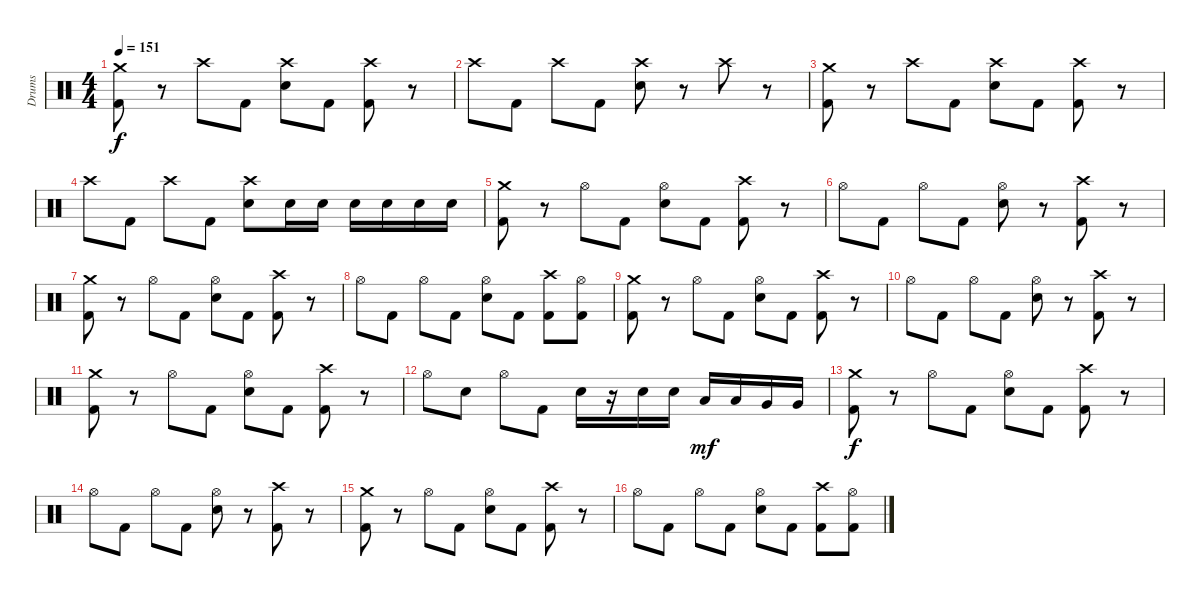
\track ("Drums" "Drums") {instrument percussion}
\staff {score}
\articulation defaults
\ts (4 4)
\tempo 151
\clef neutral
\ks c
("Crash medium (hit)" "Kick (hit) 2").8{dy f} r.8 "Crash high (hit)".8 "Kick (hit) 2".8 ("Crash high (hit)" "Snare (hit) 2").8 "Kick (hit) 2".8 ("Crash high (hit)" "Kick (hit) 2").8 r.8 |
"Crash high (hit)".8 "Kick (hit) 2".8 "Crash high (hit)".8 "Kick (hit) 2".8 ("Crash high (hit)" "Snare (hit) 2").8 r.8 "Crash high (hit)".8 r.8 |
("Crash medium (hit)" "Kick (hit) 2").8 r.8 "Crash high (hit)".8 "Kick (hit) 2".8 ("Crash high (hit)" "Snare (hit) 2").8 "Kick (hit) 2".8 ("Crash high (hit)" "Kick (hit) 2").8 r.8 |
"Crash high (hit)".8 "Kick (hit) 2".8 "Crash high (hit)".8 "Kick (hit) 2".8 ("Crash high (hit)" "Snare (hit) 2").8 "Snare (hit) 2".16 "Snare (hit) 2".16 "Snare (hit) 2".16 "Snare (hit) 2".16 "Snare (hit) 2".16 "Snare (hit) 2".16 |
("Crash medium (hit)" "Kick (hit) 2").8 r.8 "Hi-Hat (open)".8 "Kick (hit) 2".8 ("Hi-Hat (open)" "Snare (hit) 2").8 "Kick (hit) 2".8 ("Crash high (hit)" "Kick (hit) 2").8 r.8 |
"Hi-Hat (open)".8 "Kick (hit) 2".8 "Hi-Hat (open)".8 "Kick (hit) 2".8 ("Hi-Hat (open)" "Snare (hit) 2").8 r.8 ("Crash high (hit)" "Kick (hit) 2").8 r.8 |
("Crash medium (hit)" "Kick (hit) 2").8 r.8 "Hi-Hat (open)".8 "Kick (hit) 2".8 ("Hi-Hat (open)" "Snare (hit) 2").8 "Kick (hit) 2".8 ("Crash high (hit)" "Kick (hit) 2").8 r.8 |
"Hi-Hat (open)".8 "Kick (hit) 2".8 "Hi-Hat (open)".8 "Kick (hit) 2".8 ("Hi-Hat (open)" "Snare (hit) 2").8 "Kick (hit) 2".8 ("Crash high (hit)" "Kick (hit) 2").8 ("Hi-Hat (open)" "Kick (hit) 2").8 |
("Crash medium (hit)" "Kick (hit) 2").8 r.8 "Hi-Hat (open)".8 "Kick (hit) 2".8 ("Hi-Hat (open)" "Snare (hit) 2").8 "Kick (hit) 2".8 ("Crash high (hit)" "Kick (hit) 2").8 r.8 |
"Hi-Hat (open)".8 "Kick (hit) 2".8 "Hi-Hat (open)".8 "Kick (hit) 2".8 ("Hi-Hat (open)" "Snare (hit) 2").8 r.8 ("Crash high (hit)" "Kick (hit) 2").8 r.8 |
("Crash medium (hit)" "Kick (hit) 2").8 r.8 "Hi-Hat (open)".8 "Kick (hit) 2".8 ("Hi-Hat (open)" "Snare (hit) 2").8 "Kick (hit) 2".8 ("Crash high (hit)" "Kick (hit) 2").8 r.8 |
"Hi-Hat (open)".8 "Snare (hit) 2".8 "Hi-Hat (open)".8 "Kick (hit) 2".8 "Snare (hit) 2".16 r.16 "Snare (hit) 2".16 "Snare (hit) 2".16 "Low Tom (hit)".16{dy mf} "Low Tom (hit)".16 "Very Low Tom (hit)".16 "Very Low Tom (hit)".16 |
("Crash medium (hit)" "Kick (hit) 2").8{dy f} r.8 "Hi-Hat (open)".8 "Kick (hit) 2".8 ("Hi-Hat (open)" "Snare (hit) 2").8 "Kick (hit) 2".8 ("Crash high (hit)" "Kick (hit) 2").8 r.8 |
"Hi-Hat (open)".8 "Kick (hit) 2".8 "Hi-Hat (open)".8 "Kick (hit) 2".8 ("Hi-Hat (open)" "Snare (hit) 2").8 r.8 ("Crash high (hit)" "Kick (hit) 2").8 r.8 |
("Crash medium (hit)" "Kick (hit) 2").8 r.8 "Hi-Hat (open)".8 "Kick (hit) 2".8 ("Hi-Hat (open)" "Snare (hit) 2").8 "Kick (hit) 2".8 ("Crash high (hit)" "Kick (hit) 2").8 r.8 |
"Hi-Hat (open)".8 "Kick (hit) 2".8 "Hi-Hat (open)".8 "Kick (hit) 2".8 ("Hi-Hat (open)" "Snare (hit) 2").8 "Kick (hit) 2".8 ("Crash high (hit)" "Kick (hit) 2").8 ("Hi-Hat (open)" "Kick (hit) 2").8
